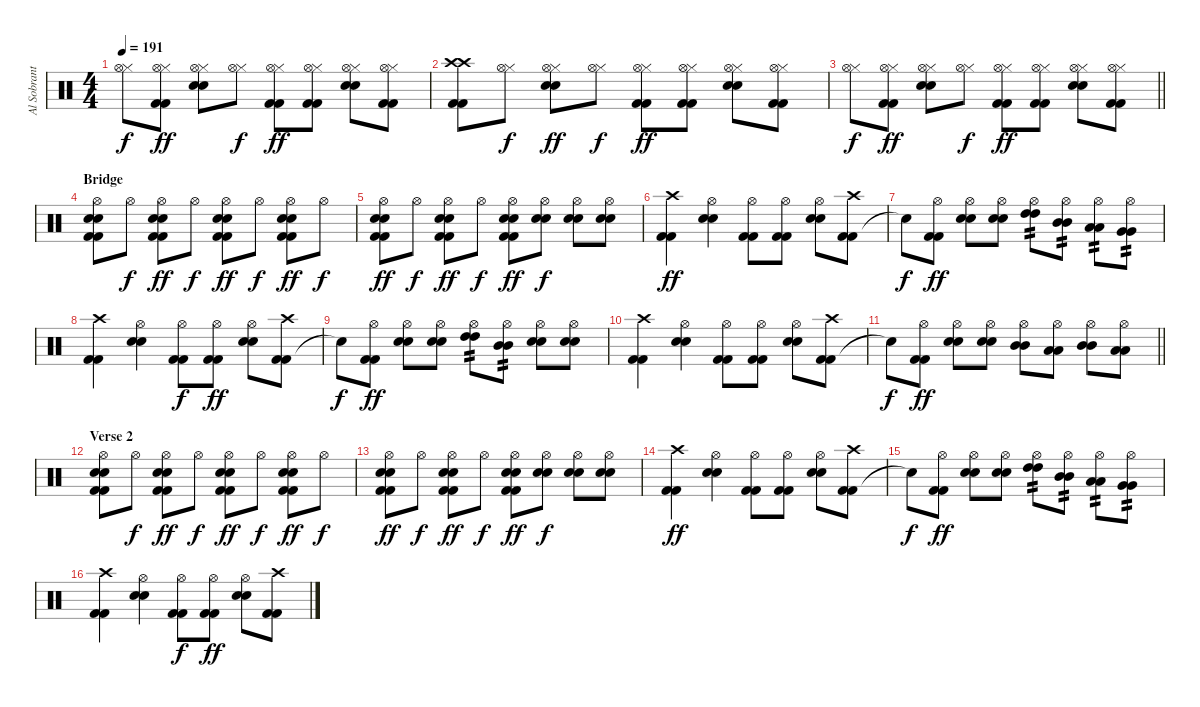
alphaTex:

\track ("Al Sobrante (Drums)" "Al Sobrant") {instrument percussion}
\staff {score}
\articulation defaults
\ts (4 4)
\tempo 191
\clef neutral
\ks c
("Hi-Hat (closed)" "Hi-Hat (open)").8{dy f} ("Kick (hit) 2" "Kick (hit) 2" "Hi-Hat (closed)" "Hi-Hat (open)").8{dy ff} ("Electric Snare (hit)" "Electric Snare (hit)" "Hi-Hat (closed)" "Hi-Hat (open)").8 ("Hi-Hat (closed)" "Hi-Hat (open)").8{dy f} ("Kick (hit) 2" "Kick (hit) 2" "Hi-Hat (closed)" "Hi-Hat (open)").8{dy ff} ("Kick (hit) 2" "Kick (hit) 2" "Hi-Hat (closed)" "Hi-Hat (open)").8 ("Electric Snare (hit)" "Electric Snare (hit)" "Hi-Hat (closed)" "Hi-Hat (open)").8 ("Kick (hit) 2" "Kick (hit) 2" "Hi-Hat (closed)" "Hi-Hat (open)").8 |
("Kick (hit) 2" "Kick (hit) 2" "Crash high (hit)" "Crash high (hit)").8 ("Hi-Hat (closed)" "Hi-Hat (open)").8{dy f} ("Electric Snare (hit)" "Electric Snare (hit)" "Hi-Hat (closed)" "Hi-Hat (open)").8{dy ff} ("Hi-Hat (closed)" "Hi-Hat (open)").8{dy f} ("Kick (hit) 2" "Kick (hit) 2" "Hi-Hat (closed)" "Hi-Hat (open)").8{dy ff} ("Kick (hit) 2" "Kick (hit) 2" "Hi-Hat (closed)" "Hi-Hat (open)").8 ("Electric Snare (hit)" "Electric Snare (hit)" "Hi-Hat (closed)" "Hi-Hat (open)").8 ("Kick (hit) 2" "Kick (hit) 2" "Hi-Hat (closed)" "Hi-Hat (open)").8 |
\barLineRight lightlight
("Hi-Hat (closed)" "Hi-Hat (open)").8{dy f} ("Kick (hit) 2" "Kick (hit) 2" "Hi-Hat (closed)" "Hi-Hat (open)").8{dy ff} ("Electric Snare (hit)" "Electric Snare (hit)" "Hi-Hat (closed)" "Hi-Hat (open)").8 ("Hi-Hat (closed)" "Hi-Hat (open)").8{dy f} ("Kick (hit) 2" "Kick (hit) 2" "Hi-Hat (closed)" "Hi-Hat (open)").8{dy ff} ("Kick (hit) 2" "Kick (hit) 2" "Hi-Hat (closed)" "Hi-Hat (open)").8 ("Electric Snare (hit)" "Electric Snare (hit)" "Hi-Hat (closed)" "Hi-Hat (open)").8 ("Kick (hit) 2" "Kick (hit) 2" "Hi-Hat (closed)" "Hi-Hat (open)").8 |
\section ("" "Bridge")
("Kick (hit) 2" "Kick (hit) 2" "Electric Snare (hit)" "Electric Snare (hit)" "Hi-Hat (open)").8 "Hi-Hat (open)".8{dy f} ("Kick (hit) 2" "Kick (hit) 2" "Electric Snare (hit)" "Electric Snare (hit)" "Hi-Hat (open)").8{dy ff} "Hi-Hat (open)".8{dy f} ("Kick (hit) 2" "Kick (hit) 2" "Electric Snare (hit)" "Electric Snare (hit)" "Hi-Hat (open)").8{dy ff} "Hi-Hat (open)".8{dy f} ("Kick (hit) 2" "Kick (hit) 2" "Electric Snare (hit)" "Electric Snare (hit)" "Hi-Hat (open)").8{dy ff} "Hi-Hat (open)".8{dy f} |
("Kick (hit) 2" "Kick (hit) 2" "Electric Snare (hit)" "Electric Snare (hit)" "Hi-Hat (open)").8{dy ff} "Hi-Hat (open)".8{dy f} ("Kick (hit) 2" "Kick (hit) 2" "Electric Snare (hit)" "Electric Snare (hit)" "Hi-Hat (open)").8{dy ff} "Hi-Hat (open)".8{dy f} ("Kick (hit) 2" "Kick (hit) 2" "Electric Snare (hit)" "Electric Snare (hit)" "Hi-Hat (open)").8{dy ff} ("Electric Snare (hit)" "Electric Snare (hit)" "Hi-Hat (open)").8{dy f} ("Electric Snare (hit)" "Electric Snare (hit)" "Hi-Hat (open)").8 ("Electric Snare (hit)" "Electric Snare (hit)" "Hi-Hat (open)").8 |
("Kick (hit) 2" "Kick (hit) 2" "Crash high (hit)").4{dy ff} ("Electric Snare (hit)" "Electric Snare (hit)" "Hi-Hat (open)").4 ("Kick (hit) 2" "Kick (hit) 2" "Hi-Hat (open)").8 ("Kick (hit) 2" "Kick (hit) 2" "Hi-Hat (open)").8 ("Electric Snare (hit)" "Electric Snare (hit)" "Hi-Hat (open)").8 ("Kick (hit) 2" "Kick (hit) 2" "Crash high (hit)").8 |
"Snare (hit)"{t}.8{dy f} ("Kick (hit) 2" "Kick (hit) 2" "Hi-Hat (open)").8{dy ff} ("Electric Snare (hit)" "Electric Snare (hit)" "Hi-Hat (open)").8 ("Electric Snare (hit)" "Electric Snare (hit)" "Hi-Hat (open)").8 ("High Tom (hit)" "High Tom (hit)" "Hi-Hat (open)").8{tp 2} ("Mid Tom (hit)" "Mid Tom (hit)" "Hi-Hat (open)").8{tp 2} ("Low Tom (hit)" "Low Tom (hit)" "Hi-Hat (open)").8{tp 2} ("Very Low Tom (hit)" "Very Low Tom (hit)" "Hi-Hat (open)").8{tp 2} |
("Kick (hit) 2" "Kick (hit) 2" "Crash high (hit)").4 ("Electric Snare (hit)" "Electric Snare (hit)" "Hi-Hat (open)").4 ("Kick (hit) 2" "Kick (hit) 2" "Hi-Hat (open)").8{dy f} ("Kick (hit) 2" "Kick (hit) 2" "Hi-Hat (open)").8{dy ff} ("Electric Snare (hit)" "Electric Snare (hit)" "Hi-Hat (open)").8 ("Kick (hit) 2" "Kick (hit) 2" "Crash high (hit)").8 |
"Snare (hit)"{t}.8{dy f} ("Kick (hit) 2" "Kick (hit) 2" "Hi-Hat (open)").8{dy ff} ("Electric Snare (hit)" "Electric Snare (hit)" "Hi-Hat (open)").8 ("Electric Snare (hit)" "Electric Snare (hit)" "Hi-Hat (open)").8 ("High Tom (hit)" "High Tom (hit)" "Hi-Hat (open)").8{tp 2} ("Mid Tom (hit)" "Mid Tom (hit)" "Hi-Hat (open)").8{tp 2} ("Electric Snare (hit)" "Electric Snare (hit)" "Hi-Hat (open)").8 ("Electric Snare (hit)" "Electric Snare (hit)" "Hi-Hat (open)").8 |
("Kick (hit) 2" "Kick (hit) 2" "Crash high (hit)").4 ("Electric Snare (hit)" "Electric Snare (hit)" "Hi-Hat (open)").4 ("Kick (hit) 2" "Kick (hit) 2" "Hi-Hat (open)").8 ("Kick (hit) 2" "Kick (hit) 2" "Hi-Hat (open)").8 ("Electric Snare (hit)" "Electric Snare (hit)" "Hi-Hat (open)").8 ("Kick (hit) 2" "Kick (hit) 2" "Crash high (hit)").8 |
\barLineRight lightlight "Snare (hit)"{t}.8{dy f}
("Kick (hit) 2" "Kick (hit) 2" "Hi-Hat (open)").8{dy ff} ("Electric Snare (hit)" "Electric Snare (hit)" "Hi-Hat (open)").8 ("Electric Snare (hit)" "Electric Snare (hit)" "Hi-Hat (open)").8 ("Mid Tom (hit)" "Mid Tom (hit)" "Hi-Hat (open)").8 ("Low Tom (hit)" "Low Tom (hit)" "Hi-Hat (open)").8 ("Mid Tom (hit)" "Mid Tom (hit)" "Hi-Hat (open)").8 ("Low Tom (hit)" "Low Tom (hit)" "Hi-Hat (open)").8 |
\section ("" "Verse 2")
("Kick (hit) 2" "Kick (hit) 2" "Electric Snare (hit)" "Electric Snare (hit)" "Hi-Hat (open)").8 "Hi-Hat (open)".8{dy f} ("Kick (hit) 2" "Kick (hit) 2" "Electric Snare (hit)" "Electric Snare (hit)" "Hi-Hat (open)").8{dy ff} "Hi-Hat (open)".8{dy f} ("Kick (hit) 2" "Kick (hit) 2" "Electric Snare (hit)" "Electric Snare (hit)" "Hi-Hat (open)").8{dy ff} "Hi-Hat (open)".8{dy f} ("Kick (hit) 2" "Kick (hit) 2" "Electric Snare (hit)" "Electric Snare (hit)" "Hi-Hat (open)").8{dy ff} "Hi-Hat (open)".8{dy f} |
("Kick (hit) 2" "Kick (hit) 2" "Electric Snare (hit)" "Electric Snare (hit)" "Hi-Hat (open)").8{dy ff} "Hi-Hat (open)".8{dy f} ("Kick (hit) 2" "Kick (hit) 2" "Electric Snare (hit)" "Electric Snare (hit)" "Hi-Hat (open)").8{dy ff} "Hi-Hat (open)".8{dy f} ("Kick (hit) 2" "Kick (hit) 2" "Electric Snare (hit)" "Electric Snare (hit)" "Hi-Hat (open)").8{dy ff} ("Electric Snare (hit)" "Electric Snare (hit)" "Hi-Hat (open)").8{dy f} ("Electric Snare (hit)" "Electric Snare (hit)" "Hi-Hat (open)").8 ("Electric Snare (hit)" "Electric Snare (hit)" "Hi-Hat (open)").8 |
("Kick (hit) 2" "Kick (hit) 2" "Crash high (hit)").4{dy ff} ("Electric Snare (hit)" "Electric Snare (hit)" "Hi-Hat (open)").4 ("Kick (hit) 2" "Kick (hit) 2" "Hi-Hat (open)").8 ("Kick (hit) 2" "Kick (hit) 2" "Hi-Hat (open)").8 ("Electric Snare (hit)" "Electric Snare (hit)" "Hi-Hat (open)").8 ("Kick (hit) 2" "Kick (hit) 2" "Crash high (hit)").8 |
"Snare (hit)"{t}.8{dy f} ("Kick (hit) 2" "Kick (hit) 2" "Hi-Hat (open)").8{dy ff} ("Electric Snare (hit)" "Electric Snare (hit)" "Hi-Hat (open)").8 ("Electric Snare (hit)" "Electric Snare (hit)" "Hi-Hat (open)").8 ("High Tom (hit)" "High Tom (hit)" "Hi-Hat (open)").8{tp 2} ("Mid Tom (hit)" "Mid Tom (hit)" "Hi-Hat (open)").8{tp 2} ("Low Tom (hit)" "Low Tom (hit)" "Hi-Hat (open)").8{tp 2} ("Very Low Tom (hit)" "Very Low Tom (hit)" "Hi-Hat (open)").8{tp 2} |
("Kick (hit) 2" "Kick (hit) 2" "Crash high (hit)").4 ("Electric Snare (hit)" "Electric Snare (hit)" "Hi-Hat (open)").4 ("Kick (hit) 2" "Kick (hit) 2" "Hi-Hat (open)").8{dy f} ("Kick (hit) 2" "Kick (hit) 2" "Hi-Hat (open)").8{dy ff} ("Electric Snare (hit)" "Electric Snare (hit)" "Hi-Hat (open)").8 ("Kick (hit) 2" "Kick (hit) 2" "Crash high (hit)").8
